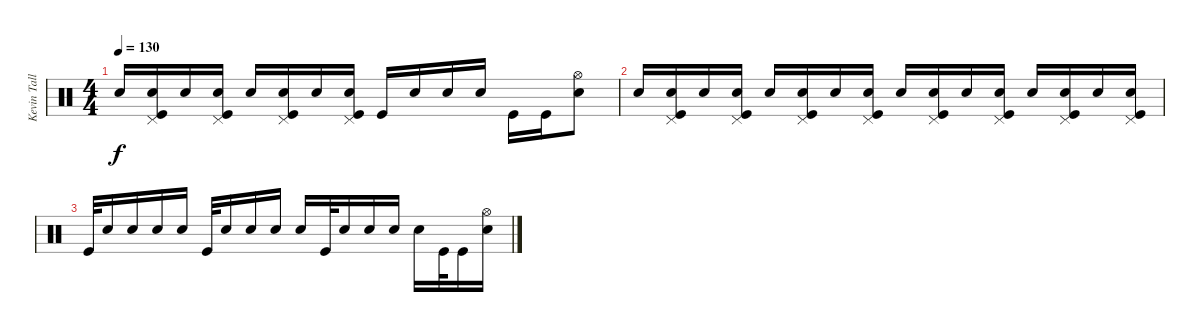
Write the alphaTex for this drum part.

\track ("Kevin Talley" "Kevin Tall") {instrument percussion}
\staff
\articulation defaults
\ts (4 4)
\tempo 130
\clef neutral
\ks c "Snare (hit) 2".16{dy f}
("Pedal Hi-Hat (hit)" "Snare (hit) 2" "Kick (hit)").16 "Snare (hit) 2".16 ("Pedal Hi-Hat (hit)" "Snare (hit) 2" "Kick (hit)").16 "Snare (hit) 2".16 ("Pedal Hi-Hat (hit)" "Snare (hit) 2" "Kick (hit)").16 "Snare (hit) 2".16 ("Pedal Hi-Hat (hit)" "Snare (hit) 2" "Kick (hit)").16 "Kick (hit)".16 "Snare (hit) 2".16 "Snare (hit) 2".16 "Snare (hit) 2".16 "Kick (hit)".16 "Kick (hit)".16 ("Hi-Hat (open)" "Snare (hit) 2").8 |
"Snare (hit) 2".16 ("Pedal Hi-Hat (hit)" "Snare (hit) 2" "Kick (hit)").16 "Snare (hit) 2".16 ("Pedal Hi-Hat (hit)" "Snare (hit) 2" "Kick (hit)").16 "Snare (hit) 2".16 ("Pedal Hi-Hat (hit)" "Snare (hit) 2" "Kick (hit)").16 "Snare (hit) 2".16 ("Pedal Hi-Hat (hit)" "Snare (hit) 2" "Kick (hit)").16 "Snare (hit) 2".16 ("Pedal Hi-Hat (hit)" "Snare (hit) 2" "Kick (hit)").16 "Snare (hit) 2".16 ("Pedal Hi-Hat (hit)" "Snare (hit) 2" "Kick (hit)").16 "Snare (hit) 2".16 ("Pedal Hi-Hat (hit)" "Snare (hit) 2" "Kick (hit)").16 "Snare (hit) 2".16 ("Pedal Hi-Hat (hit)" "Snare (hit) 2" "Kick (hit)").16 |
"Kick (hit)".32 "Snare (hit) 2".16 "Snare (hit) 2".16 "Snare (hit) 2".16 "Snare (hit) 2".16 "Kick (hit)".32 "Snare (hit) 2".16 "Snare (hit) 2".16 "Snare (hit) 2".16 "Snare (hit) 2".16 "Kick (hit)".32 "Snare (hit) 2".16 "Snare (hit) 2".16 "Snare (hit) 2".16 "Snare (hit) 2".16 "Kick (hit)".32 "Kick (hit)".16 ("Hi-Hat (open)" "Snare (hit) 2").16
